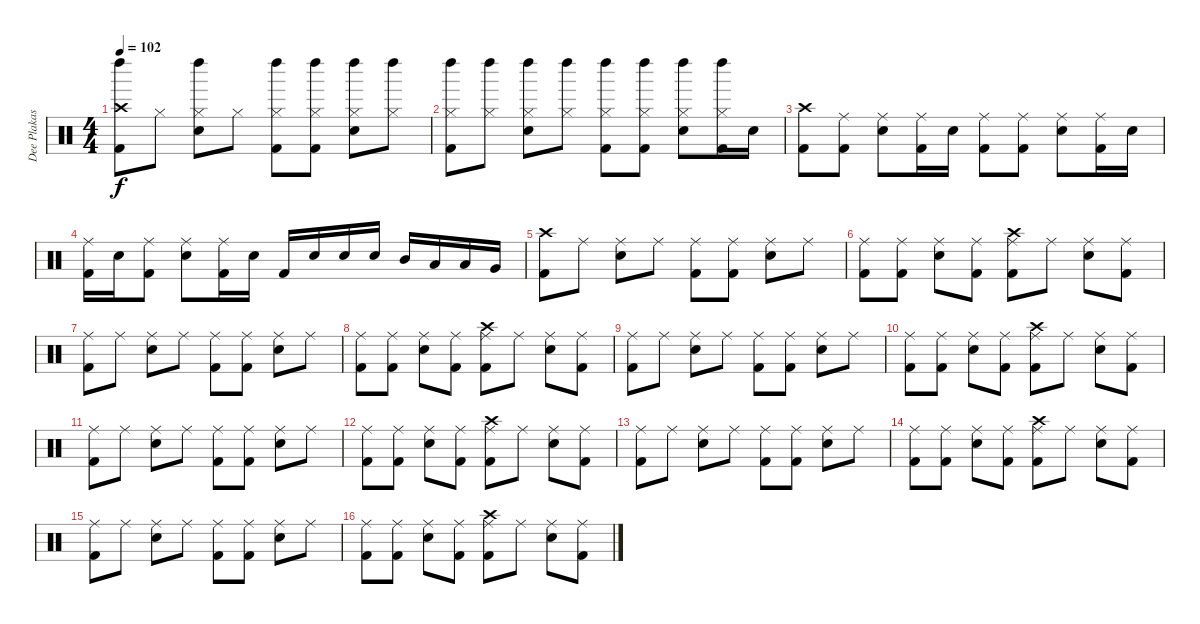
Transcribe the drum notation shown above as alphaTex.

\track ("Dee Plakas" "Dee Plakas") {instrument percussion}
\staff {score}
\articulation defaults
\ts (4 4)
\tempo 102
\clef neutral
\ks c
("Crash high (hit)" "Left Maraca (hit)" "Kick (hit) 2").8{dy f} "Hi-Hat (closed)".8 ("Hi-Hat (closed)" "Left Maraca (hit)" "Snare (hit) 2").8 "Hi-Hat (closed)".8 ("Hi-Hat (closed)" "Left Maraca (hit)" "Kick (hit) 2").8 ("Hi-Hat (closed)" "Left Maraca (hit)" "Kick (hit) 2").8 ("Hi-Hat (closed)" "Left Maraca (hit)" "Snare (hit) 2").8 ("Hi-Hat (closed)" "Left Maraca (hit)").8 |
("Hi-Hat (closed)" "Left Maraca (hit)" "Kick (hit) 2").8 ("Hi-Hat (closed)" "Left Maraca (hit)").8 ("Hi-Hat (closed)" "Left Maraca (hit)" "Snare (hit) 2").8 ("Hi-Hat (closed)" "Left Maraca (hit)").8 ("Hi-Hat (closed)" "Left Maraca (hit)" "Kick (hit) 2").8 ("Hi-Hat (closed)" "Left Maraca (hit)" "Kick (hit) 2").8 ("Hi-Hat (closed)" "Left Maraca (hit)" "Snare (hit) 2").8 ("Hi-Hat (closed)" "Left Maraca (hit)" "Kick (hit) 2").16 "Snare (hit) 2".16 |
("Crash high (hit)" "Kick (hit) 2").8 ("Ride (middle)" "Kick (hit) 2").8 ("Ride (middle)" "Snare (hit) 2").8 ("Ride (middle)" "Kick (hit) 2").16 "Snare (hit) 2".16 ("Ride (middle)" "Kick (hit) 2").8 ("Ride (middle)" "Kick (hit) 2").8 ("Ride (middle)" "Snare (hit) 2").8 ("Ride (middle)" "Kick (hit) 2").16 "Snare (hit) 2".16 |
("Ride (middle)" "Kick (hit) 2").16 "Snare (hit) 2".16 ("Ride (middle)" "Kick (hit) 2").8 ("Ride (middle)" "Snare (hit) 2").8 ("Ride (middle)" "Kick (hit) 2").16 "Snare (hit) 2".16 "Kick (hit) 2".16 "Snare (hit) 2".16 "Snare (hit) 2".16 "Snare (hit) 2".16 "Mid Tom (hit)".16 "Low Tom (hit)".16 "Low Tom (hit)".16 "Very Low Tom (hit)".16 |
("Crash high (hit)" "Kick (hit) 2").8 "Ride (middle)".8 ("Ride (middle)" "Snare (hit) 2").8 "Ride (middle)".8 ("Ride (middle)" "Kick (hit) 2").8 ("Ride (middle)" "Kick (hit) 2").8 ("Ride (middle)" "Snare (hit) 2").8 "Ride (middle)".8 |
("Ride (middle)" "Kick (hit) 2").8 ("Ride (middle)" "Kick (hit) 2").8 ("Ride (middle)" "Snare (hit) 2").8 ("Ride (middle)" "Kick (hit) 2").8 ("Ride (middle)" "Crash high (hit)" "Kick (hit) 2").8 "Ride (middle)".8 ("Ride (middle)" "Snare (hit) 2").8 ("Ride (middle)" "Kick (hit) 2").8 |
("Ride (middle)" "Kick (hit) 2").8 "Ride (middle)".8 ("Ride (middle)" "Snare (hit) 2").8 "Ride (middle)".8 ("Ride (middle)" "Kick (hit) 2").8 ("Ride (middle)" "Kick (hit) 2").8 ("Ride (middle)" "Snare (hit) 2").8 "Ride (middle)".8 |
("Ride (middle)" "Kick (hit) 2").8 ("Ride (middle)" "Kick (hit) 2").8 ("Ride (middle)" "Snare (hit) 2").8 ("Ride (middle)" "Kick (hit) 2").8 ("Ride (middle)" "Crash high (hit)" "Kick (hit) 2").8 "Ride (middle)".8 ("Ride (middle)" "Snare (hit) 2").8 ("Ride (middle)" "Kick (hit) 2").8 |
("Ride (middle)" "Kick (hit) 2").8 "Ride (middle)".8 ("Ride (middle)" "Snare (hit) 2").8 "Ride (middle)".8 ("Ride (middle)" "Kick (hit) 2").8 ("Ride (middle)" "Kick (hit) 2").8 ("Ride (middle)" "Snare (hit) 2").8 "Ride (middle)".8 |
("Ride (middle)" "Kick (hit) 2").8 ("Ride (middle)" "Kick (hit) 2").8 ("Ride (middle)" "Snare (hit) 2").8 ("Ride (middle)" "Kick (hit) 2").8 ("Ride (middle)" "Crash high (hit)" "Kick (hit) 2").8 "Ride (middle)".8 ("Ride (middle)" "Snare (hit) 2").8 ("Ride (middle)" "Kick (hit) 2").8 |
("Ride (middle)" "Kick (hit) 2").8 "Ride (middle)".8 ("Ride (middle)" "Snare (hit) 2").8 "Ride (middle)".8 ("Ride (middle)" "Kick (hit) 2").8 ("Ride (middle)" "Kick (hit) 2").8 ("Ride (middle)" "Snare (hit) 2").8 "Ride (middle)".8 |
("Ride (middle)" "Kick (hit) 2").8 ("Ride (middle)" "Kick (hit) 2").8 ("Ride (middle)" "Snare (hit) 2").8 ("Ride (middle)" "Kick (hit) 2").8 ("Ride (middle)" "Crash high (hit)" "Kick (hit) 2").8 "Ride (middle)".8 ("Ride (middle)" "Snare (hit) 2").8 ("Ride (middle)" "Kick (hit) 2").8 |
("Ride (middle)" "Kick (hit) 2").8 "Ride (middle)".8 ("Ride (middle)" "Snare (hit) 2").8 "Ride (middle)".8 ("Ride (middle)" "Kick (hit) 2").8 ("Ride (middle)" "Kick (hit) 2").8 ("Ride (middle)" "Snare (hit) 2").8 "Ride (middle)".8 |
("Ride (middle)" "Kick (hit) 2").8 ("Ride (middle)" "Kick (hit) 2").8 ("Ride (middle)" "Snare (hit) 2").8 ("Ride (middle)" "Kick (hit) 2").8 ("Ride (middle)" "Crash high (hit)" "Kick (hit) 2").8 "Ride (middle)".8 ("Ride (middle)" "Snare (hit) 2").8 ("Ride (middle)" "Kick (hit) 2").8 |
("Ride (middle)" "Kick (hit) 2").8 "Ride (middle)".8 ("Ride (middle)" "Snare (hit) 2").8 "Ride (middle)".8 ("Ride (middle)" "Kick (hit) 2").8 ("Ride (middle)" "Kick (hit) 2").8 ("Ride (middle)" "Snare (hit) 2").8 "Ride (middle)".8 |
("Ride (middle)" "Kick (hit) 2").8 ("Ride (middle)" "Kick (hit) 2").8 ("Ride (middle)" "Snare (hit) 2").8 ("Ride (middle)" "Kick (hit) 2").8 ("Ride (middle)" "Crash high (hit)" "Kick (hit) 2").8 "Ride (middle)".8 ("Ride (middle)" "Snare (hit) 2").8 ("Ride (middle)" "Kick (hit) 2").8
